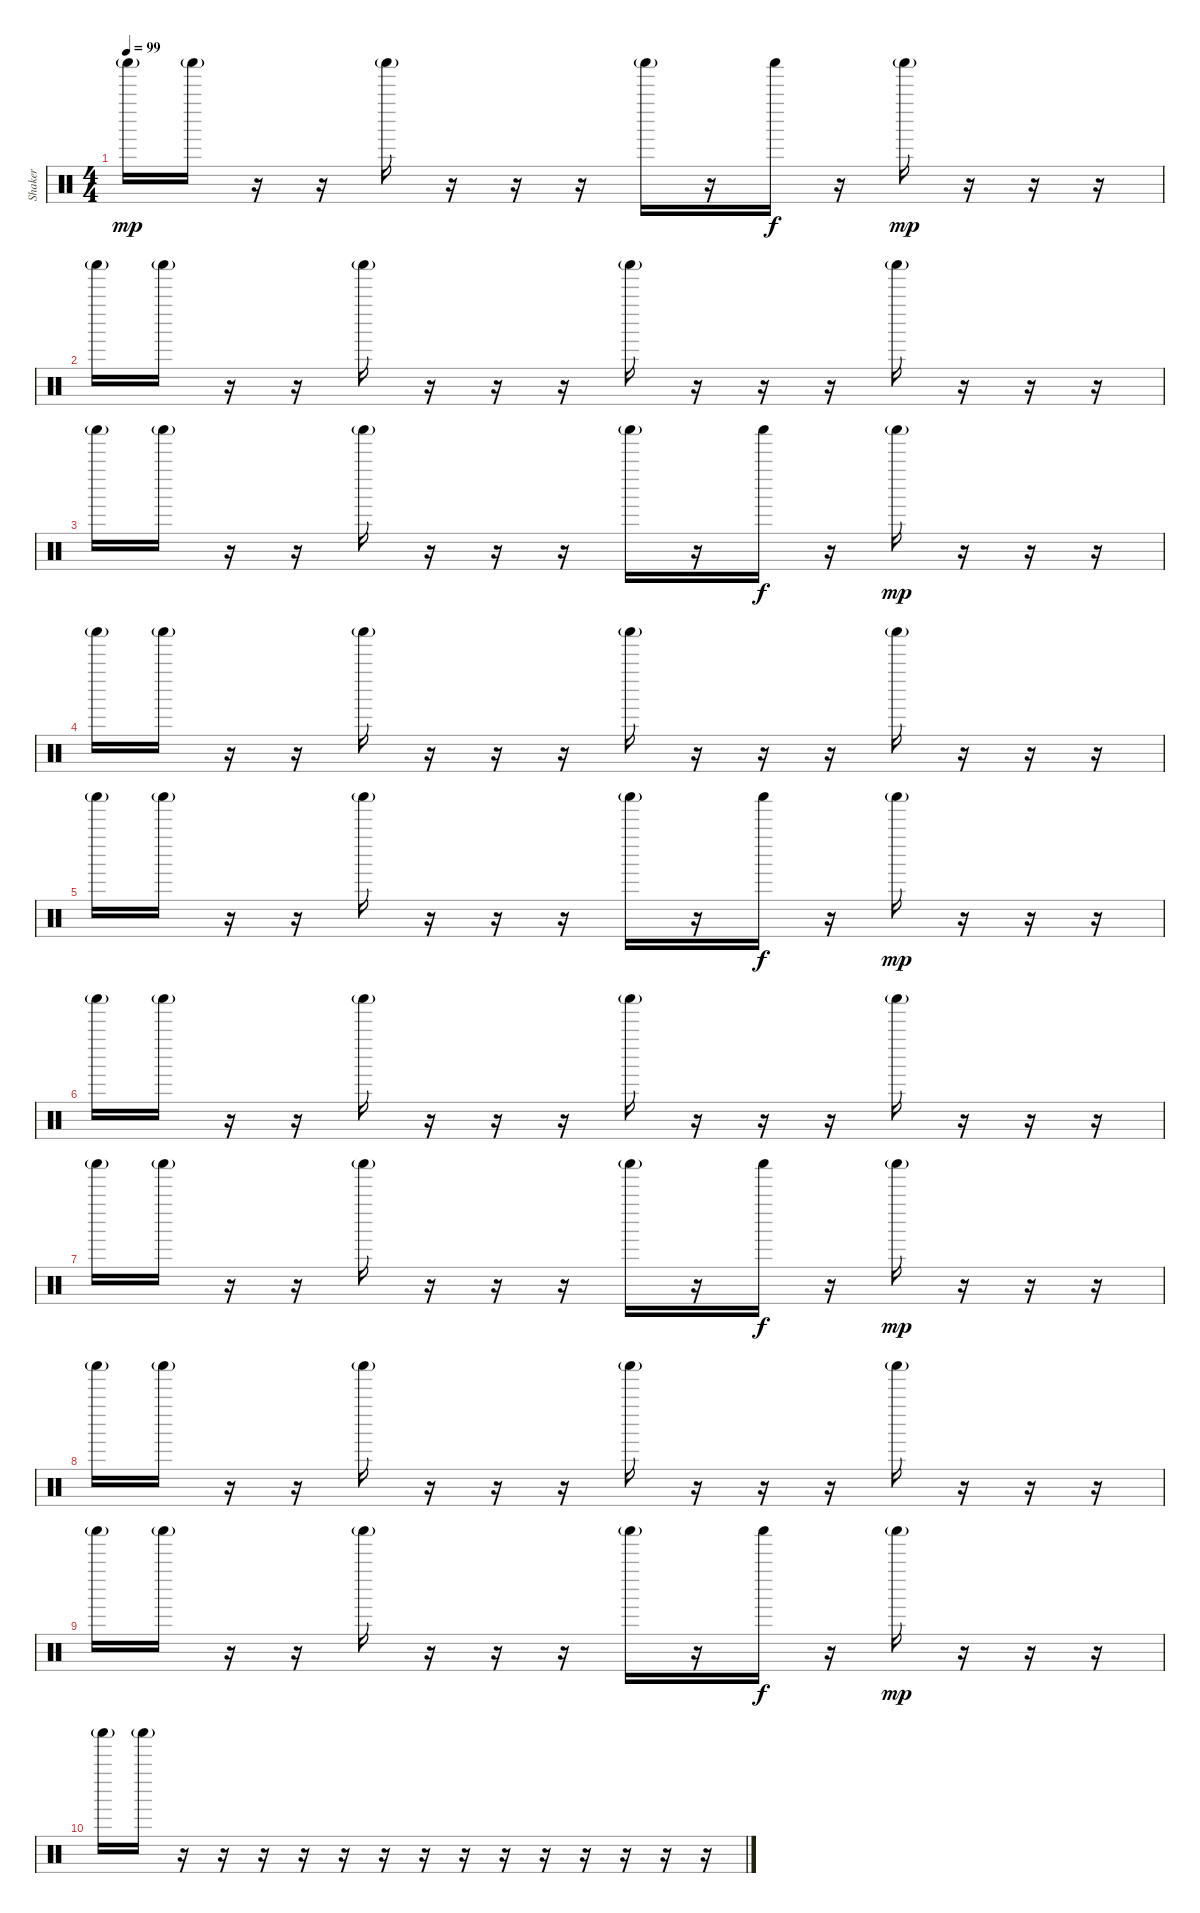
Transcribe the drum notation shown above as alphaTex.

\track ("Shaker" "Shaker") {instrument percussion}
\staff {score}
\articulation defaults
\ts (4 4)
\tempo 99
\clef neutral
\ks c "Shaker (hit)"{g}.16{dy mp} "Shaker (hit)"{g}.16
r.16 r.16 "Shaker (hit)"{g}.16 r.16 r.16 r.16 "Shaker (hit)"{g}.16 r.16 "Shaker (hit)".16{dy f} r.16 "Shaker (hit)"{g}.16{dy mp} r.16 r.16 r.16 |
"Shaker (hit)"{g}.16 "Shaker (hit)"{g}.16 r.16 r.16 "Shaker (hit)"{g}.16 r.16 r.16 r.16 "Shaker (hit)"{g}.16 r.16 r.16 r.16 "Shaker (hit)"{g}.16 r.16 r.16 r.16 |
"Shaker (hit)"{g}.16 "Shaker (hit)"{g}.16 r.16 r.16 "Shaker (hit)"{g}.16 r.16 r.16 r.16 "Shaker (hit)"{g}.16 r.16 "Shaker (hit)".16{dy f} r.16 "Shaker (hit)"{g}.16{dy mp} r.16 r.16 r.16 |
"Shaker (hit)"{g}.16 "Shaker (hit)"{g}.16 r.16 r.16 "Shaker (hit)"{g}.16 r.16 r.16 r.16 "Shaker (hit)"{g}.16 r.16 r.16 r.16 "Shaker (hit)"{g}.16 r.16 r.16 r.16 |
"Shaker (hit)"{g}.16 "Shaker (hit)"{g}.16 r.16 r.16 "Shaker (hit)"{g}.16 r.16 r.16 r.16 "Shaker (hit)"{g}.16 r.16 "Shaker (hit)".16{dy f} r.16 "Shaker (hit)"{g}.16{dy mp} r.16 r.16 r.16 |
"Shaker (hit)"{g}.16 "Shaker (hit)"{g}.16 r.16 r.16 "Shaker (hit)"{g}.16 r.16 r.16 r.16 "Shaker (hit)"{g}.16 r.16 r.16 r.16 "Shaker (hit)"{g}.16 r.16 r.16 r.16 |
"Shaker (hit)"{g}.16 "Shaker (hit)"{g}.16 r.16 r.16 "Shaker (hit)"{g}.16 r.16 r.16 r.16 "Shaker (hit)"{g}.16 r.16 "Shaker (hit)".16{dy f} r.16 "Shaker (hit)"{g}.16{dy mp} r.16 r.16 r.16 |
"Shaker (hit)"{g}.16 "Shaker (hit)"{g}.16 r.16 r.16 "Shaker (hit)"{g}.16 r.16 r.16 r.16 "Shaker (hit)"{g}.16 r.16 r.16 r.16 "Shaker (hit)"{g}.16 r.16 r.16 r.16 |
"Shaker (hit)"{g}.16 "Shaker (hit)"{g}.16 r.16 r.16 "Shaker (hit)"{g}.16 r.16 r.16 r.16 "Shaker (hit)"{g}.16 r.16 "Shaker (hit)".16{dy f} r.16 "Shaker (hit)"{g}.16{dy mp} r.16 r.16 r.16 |
"Shaker (hit)"{g}.16 "Shaker (hit)"{g}.16 r.16 r.16 r.16 r.16 r.16 r.16 r.16 r.16 r.16 r.16 r.16 r.16 r.16 r.16
